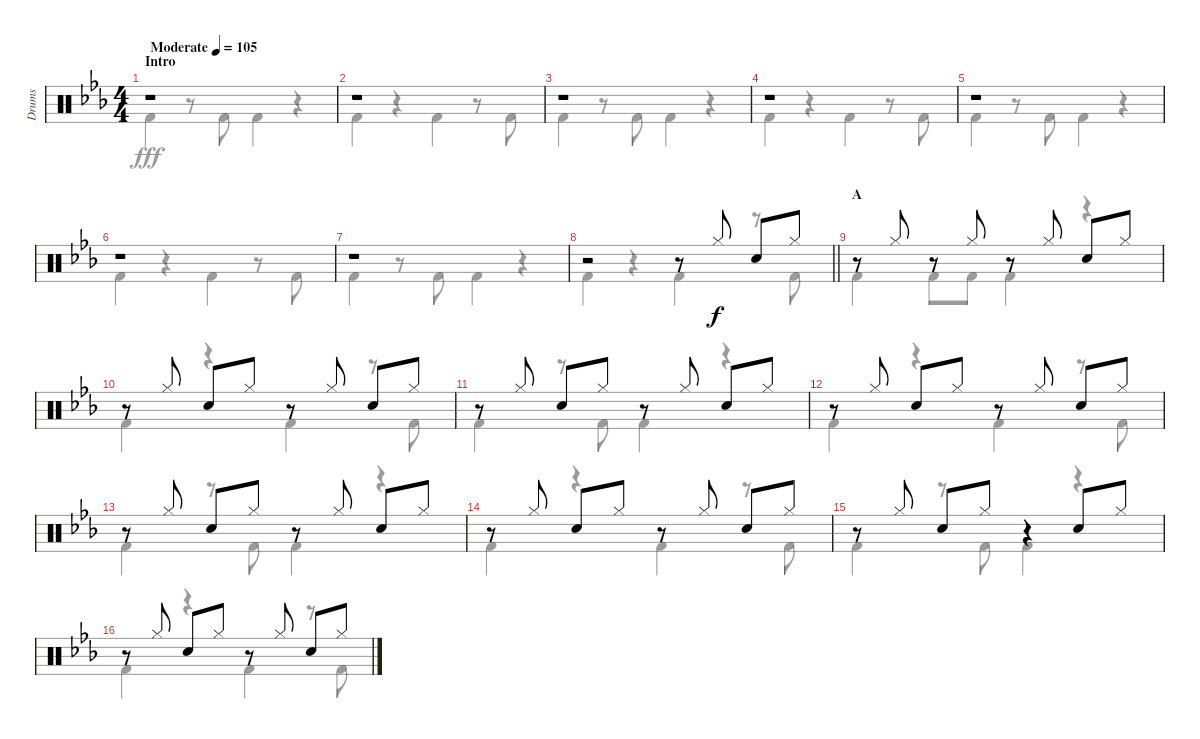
\track ("Drums" "Drums") {instrument percussion}
\staff {score}
\articulation defaults
\voice
\ts (4 4)
\section ("" "Intro")
\tempo (105 "Moderate")
\clef neutral
\ks eb
r.1{dy f} |
r.1 |
r.1 |
r.1 |
r.1 |
r.1 |
r.1 |
\barLineRight lightlight
r.2 r.8 "Hi-Hat (closed)".8 "Snare (hit) 2".8 "Hi-Hat (closed)".8 |
\section ("" "A")
r.8 "Hi-Hat (closed)".8 r.8 "Hi-Hat (closed)".8 r.8 "Hi-Hat (closed)".8 "Snare (hit) 2".8 "Hi-Hat (closed)".8 |
r.8 "Hi-Hat (closed)".8 "Snare (hit) 2".8 "Hi-Hat (closed)".8 r.8 "Hi-Hat (closed)".8 "Snare (hit) 2".8 "Hi-Hat (closed)".8 |
r.8 "Hi-Hat (closed)".8 "Snare (hit) 2".8 "Hi-Hat (closed)".8 r.8 "Hi-Hat (closed)".8 "Snare (hit) 2".8 "Hi-Hat (closed)".8 |
r.8 "Hi-Hat (closed)".8 "Snare (hit) 2".8 "Hi-Hat (closed)".8 r.8 "Hi-Hat (closed)".8 "Snare (hit) 2".8 "Hi-Hat (closed)".8 |
r.8 "Hi-Hat (closed)".8 "Snare (hit) 2".8 "Hi-Hat (closed)".8 r.8 "Hi-Hat (closed)".8 "Snare (hit) 2".8 "Hi-Hat (closed)".8 |
r.8 "Hi-Hat (closed)".8 "Snare (hit) 2".8 "Hi-Hat (closed)".8 r.8 "Hi-Hat (closed)".8 "Snare (hit) 2".8 "Hi-Hat (closed)".8 |
r.8 "Hi-Hat (closed)".8 "Snare (hit) 2".8 "Hi-Hat (closed)".8 r.4 "Snare (hit) 2".8 "Hi-Hat (closed)".8 |
r.8 "Hi-Hat (closed)".8 "Snare (hit) 2".8 "Hi-Hat (closed)".8 r.8 "Hi-Hat (closed)".8 "Snare (hit) 2".8 "Hi-Hat (closed)".8
\voice
\clef neutral
\ottava regular
\simile none
\ks eb "Kick (hit) 2".4{dy fff}
r.8 "Kick (hit) 2".8 "Kick (hit) 2".4 r.4 |
"Kick (hit) 2".4 r.4 "Kick (hit) 2".4 r.8 "Kick (hit) 2".8 |
"Kick (hit) 2".4 r.8 "Kick (hit) 2".8 "Kick (hit) 2".4 r.4 |
"Kick (hit) 2".4 r.4 "Kick (hit) 2".4 r.8 "Kick (hit) 2".8 |
"Kick (hit) 2".4 r.8 "Kick (hit) 2".8 "Kick (hit) 2".4 r.4 |
"Kick (hit) 2".4 r.4 "Kick (hit) 2".4 r.8 "Kick (hit) 2".8 |
"Kick (hit) 2".4 r.8 "Kick (hit) 2".8 "Kick (hit) 2".4 r.4 |
\barLineRight lightlight "Kick (hit) 2".4
r.4 "Kick (hit) 2".4 r.8 "Kick (hit) 2".8 |
"Kick (hit) 2".4 "Kick (hit) 2".8 "Kick (hit) 2".8 "Kick (hit) 2".4 r.4 |
"Kick (hit) 2".4 r.4 "Kick (hit) 2".4 r.8 "Kick (hit) 2".8 |
"Kick (hit) 2".4 r.8 "Kick (hit) 2".8 "Kick (hit) 2".4 r.4 |
"Kick (hit) 2".4 r.4 "Kick (hit) 2".4 r.8 "Kick (hit) 2".8 |
"Kick (hit) 2".4 r.8 "Kick (hit) 2".8 "Kick (hit) 2".4 r.4 |
"Kick (hit) 2".4 r.4 "Kick (hit) 2".4 r.8 "Kick (hit) 2".8 |
"Kick (hit) 2".4 r.8 "Kick (hit) 2".8 "Kick (hit) 2".4 r.4 |
"Kick (hit) 2".4 r.4 "Kick (hit) 2".4 r.8 "Kick (hit) 2".8
